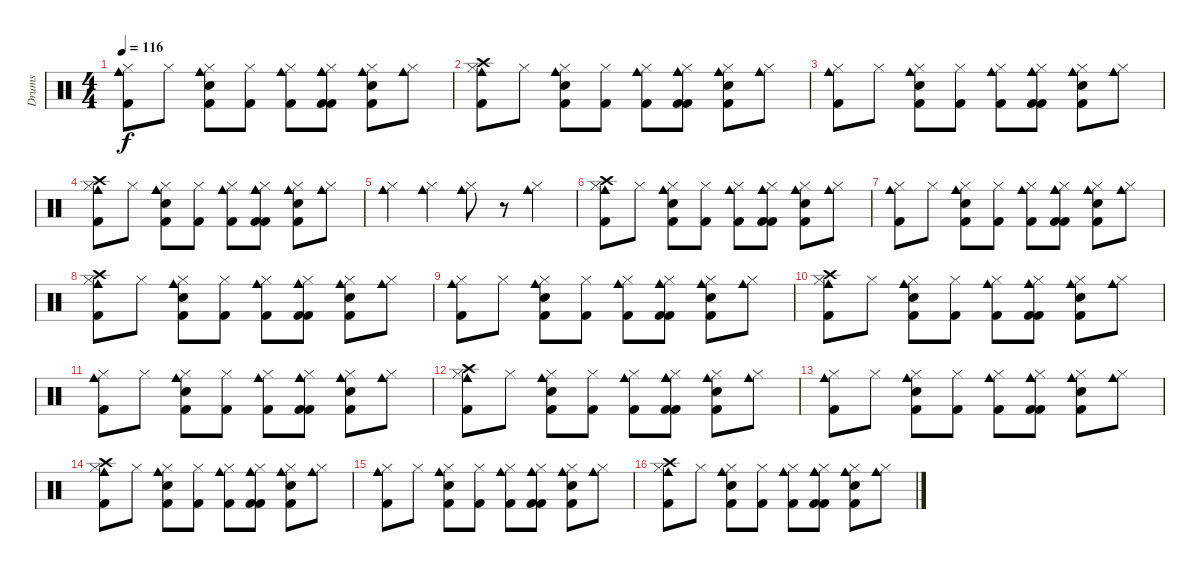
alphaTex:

\track ("Drums" "Drums") {instrument percussion}
\staff {score}
\articulation defaults
\ts (4 4)
\tempo 116
\clef neutral
\ks c
("Kick (hit) 2" "Hi-Hat (closed)" "Cowbell medium (hit)").8{dy f} "Hi-Hat (closed)".8 ("Snare (hit) 2" "Kick (hit) 2" "Hi-Hat (closed)" "Cowbell medium (hit)").8 ("Kick (hit) 2" "Hi-Hat (closed)").8 ("Hi-Hat (closed)" "Kick (hit) 2" "Cowbell medium (hit)").8 ("Kick (hit) 2" "Hi-Hat (closed)" "Cowbell medium (hit)" "Kick (hit) 2" "Cowbell medium (hit)").8 ("Kick (hit) 2" "Snare (hit) 2" "Hi-Hat (closed)" "Cowbell medium (hit)").8 ("Hi-Hat (closed)" "Cowbell medium (hit)").8 |
("Kick (hit) 2" "Hi-Hat (closed)" "Cowbell medium (hit)" "Crash high (hit)").8 "Hi-Hat (closed)".8 ("Snare (hit) 2" "Kick (hit) 2" "Hi-Hat (closed)" "Cowbell medium (hit)").8 ("Kick (hit) 2" "Hi-Hat (closed)").8 ("Hi-Hat (closed)" "Kick (hit) 2" "Cowbell medium (hit)").8 ("Kick (hit) 2" "Hi-Hat (closed)" "Cowbell medium (hit)" "Kick (hit) 2" "Cowbell medium (hit)").8 ("Kick (hit) 2" "Snare (hit) 2" "Hi-Hat (closed)" "Cowbell medium (hit)").8 ("Hi-Hat (closed)" "Cowbell medium (hit)").8 |
("Kick (hit) 2" "Hi-Hat (closed)" "Cowbell medium (hit)").8 "Hi-Hat (closed)".8 ("Snare (hit) 2" "Kick (hit) 2" "Hi-Hat (closed)" "Cowbell medium (hit)").8 ("Kick (hit) 2" "Hi-Hat (closed)").8 ("Hi-Hat (closed)" "Kick (hit) 2" "Cowbell medium (hit)").8 ("Kick (hit) 2" "Hi-Hat (closed)" "Cowbell medium (hit)" "Kick (hit) 2" "Cowbell medium (hit)").8 ("Kick (hit) 2" "Snare (hit) 2" "Hi-Hat (closed)" "Cowbell medium (hit)").8 ("Hi-Hat (closed)" "Cowbell medium (hit)").8 |
("Kick (hit) 2" "Hi-Hat (closed)" "Cowbell medium (hit)" "Crash high (hit)").8 "Hi-Hat (closed)".8 ("Snare (hit) 2" "Kick (hit) 2" "Hi-Hat (closed)" "Cowbell medium (hit)").8 ("Kick (hit) 2" "Hi-Hat (closed)").8 ("Hi-Hat (closed)" "Kick (hit) 2" "Cowbell medium (hit)").8 ("Kick (hit) 2" "Hi-Hat (closed)" "Cowbell medium (hit)" "Kick (hit) 2" "Cowbell medium (hit)").8 ("Kick (hit) 2" "Snare (hit) 2" "Hi-Hat (closed)" "Cowbell medium (hit)").8 ("Hi-Hat (closed)" "Cowbell medium (hit)").8 |
("Hi-Hat (closed)" "Cowbell medium (hit)").4 ("Hi-Hat (closed)" "Cowbell medium (hit)").4 ("Hi-Hat (closed)" "Cowbell medium (hit)").8 r.8 ("Hi-Hat (closed)" "Cowbell medium (hit)").4 |
("Kick (hit) 2" "Hi-Hat (closed)" "Crash high (hit)" "Cowbell medium (hit)").8 "Hi-Hat (closed)".8 ("Snare (hit) 2" "Kick (hit) 2" "Hi-Hat (closed)" "Cowbell medium (hit)").8 ("Kick (hit) 2" "Hi-Hat (closed)").8 ("Hi-Hat (closed)" "Kick (hit) 2" "Cowbell medium (hit)").8 ("Kick (hit) 2" "Hi-Hat (closed)" "Cowbell medium (hit)" "Kick (hit) 2" "Cowbell medium (hit)").8 ("Kick (hit) 2" "Snare (hit) 2" "Hi-Hat (closed)" "Cowbell medium (hit)").8 ("Hi-Hat (closed)" "Cowbell medium (hit)").8 |
("Kick (hit) 2" "Hi-Hat (closed)" "Cowbell medium (hit)").8 "Hi-Hat (closed)".8 ("Snare (hit) 2" "Kick (hit) 2" "Hi-Hat (closed)" "Cowbell medium (hit)").8 ("Kick (hit) 2" "Hi-Hat (closed)").8 ("Hi-Hat (closed)" "Kick (hit) 2" "Cowbell medium (hit)").8 ("Kick (hit) 2" "Hi-Hat (closed)" "Cowbell medium (hit)" "Kick (hit) 2" "Cowbell medium (hit)").8 ("Kick (hit) 2" "Snare (hit) 2" "Hi-Hat (closed)" "Cowbell medium (hit)").8 ("Hi-Hat (closed)" "Cowbell medium (hit)").8 |
("Kick (hit) 2" "Hi-Hat (closed)" "Crash high (hit)" "Cowbell medium (hit)").8 "Hi-Hat (closed)".8 ("Snare (hit) 2" "Kick (hit) 2" "Hi-Hat (closed)" "Cowbell medium (hit)").8 ("Kick (hit) 2" "Hi-Hat (closed)").8 ("Hi-Hat (closed)" "Kick (hit) 2" "Cowbell medium (hit)").8 ("Kick (hit) 2" "Hi-Hat (closed)" "Cowbell medium (hit)" "Kick (hit) 2" "Cowbell medium (hit)").8 ("Kick (hit) 2" "Snare (hit) 2" "Hi-Hat (closed)" "Cowbell medium (hit)").8 ("Hi-Hat (closed)" "Cowbell medium (hit)").8 |
("Kick (hit) 2" "Hi-Hat (closed)" "Cowbell medium (hit)").8 "Hi-Hat (closed)".8 ("Snare (hit) 2" "Kick (hit) 2" "Hi-Hat (closed)" "Cowbell medium (hit)").8 ("Kick (hit) 2" "Hi-Hat (closed)").8 ("Hi-Hat (closed)" "Kick (hit) 2" "Cowbell medium (hit)").8 ("Kick (hit) 2" "Hi-Hat (closed)" "Cowbell medium (hit)" "Kick (hit) 2" "Cowbell medium (hit)").8 ("Kick (hit) 2" "Snare (hit) 2" "Hi-Hat (closed)" "Cowbell medium (hit)").8 ("Hi-Hat (closed)" "Cowbell medium (hit)").8 |
("Kick (hit) 2" "Hi-Hat (closed)" "Crash high (hit)" "Cowbell medium (hit)").8 "Hi-Hat (closed)".8 ("Snare (hit) 2" "Kick (hit) 2" "Hi-Hat (closed)" "Cowbell medium (hit)").8 ("Kick (hit) 2" "Hi-Hat (closed)").8 ("Hi-Hat (closed)" "Kick (hit) 2" "Cowbell medium (hit)").8 ("Kick (hit) 2" "Hi-Hat (closed)" "Cowbell medium (hit)" "Kick (hit) 2" "Cowbell medium (hit)").8 ("Kick (hit) 2" "Snare (hit) 2" "Hi-Hat (closed)" "Cowbell medium (hit)").8 ("Hi-Hat (closed)" "Cowbell medium (hit)").8 |
("Kick (hit) 2" "Hi-Hat (closed)" "Cowbell medium (hit)").8 "Hi-Hat (closed)".8 ("Snare (hit) 2" "Kick (hit) 2" "Hi-Hat (closed)" "Cowbell medium (hit)").8 ("Kick (hit) 2" "Hi-Hat (closed)").8 ("Hi-Hat (closed)" "Kick (hit) 2" "Cowbell medium (hit)").8 ("Kick (hit) 2" "Hi-Hat (closed)" "Cowbell medium (hit)" "Kick (hit) 2" "Cowbell medium (hit)").8 ("Kick (hit) 2" "Snare (hit) 2" "Hi-Hat (closed)" "Cowbell medium (hit)").8 ("Hi-Hat (closed)" "Cowbell medium (hit)").8 |
("Kick (hit) 2" "Hi-Hat (closed)" "Cowbell medium (hit)" "Crash high (hit)").8 "Hi-Hat (closed)".8 ("Snare (hit) 2" "Kick (hit) 2" "Hi-Hat (closed)" "Cowbell medium (hit)").8 ("Kick (hit) 2" "Hi-Hat (closed)").8 ("Hi-Hat (closed)" "Kick (hit) 2" "Cowbell medium (hit)").8 ("Kick (hit) 2" "Hi-Hat (closed)" "Cowbell medium (hit)" "Kick (hit) 2" "Cowbell medium (hit)").8 ("Kick (hit) 2" "Snare (hit) 2" "Hi-Hat (closed)" "Cowbell medium (hit)").8 ("Hi-Hat (closed)" "Cowbell medium (hit)").8 |
("Kick (hit) 2" "Hi-Hat (closed)" "Cowbell medium (hit)").8 "Hi-Hat (closed)".8 ("Snare (hit) 2" "Kick (hit) 2" "Hi-Hat (closed)" "Cowbell medium (hit)").8 ("Kick (hit) 2" "Hi-Hat (closed)").8 ("Hi-Hat (closed)" "Kick (hit) 2" "Cowbell medium (hit)").8 ("Kick (hit) 2" "Hi-Hat (closed)" "Cowbell medium (hit)" "Kick (hit) 2" "Cowbell medium (hit)").8 ("Kick (hit) 2" "Snare (hit) 2" "Hi-Hat (closed)" "Cowbell medium (hit)").8 ("Hi-Hat (closed)" "Cowbell medium (hit)").8 |
("Kick (hit) 2" "Hi-Hat (closed)" "Crash high (hit)" "Cowbell medium (hit)").8 "Hi-Hat (closed)".8 ("Snare (hit) 2" "Kick (hit) 2" "Hi-Hat (closed)" "Cowbell medium (hit)").8 ("Kick (hit) 2" "Hi-Hat (closed)").8 ("Hi-Hat (closed)" "Kick (hit) 2" "Cowbell medium (hit)").8 ("Kick (hit) 2" "Hi-Hat (closed)" "Cowbell medium (hit)" "Kick (hit) 2" "Cowbell medium (hit)").8 ("Kick (hit) 2" "Snare (hit) 2" "Hi-Hat (closed)" "Cowbell medium (hit)").8 ("Hi-Hat (closed)" "Cowbell medium (hit)").8 |
("Kick (hit) 2" "Hi-Hat (closed)" "Cowbell medium (hit)").8 "Hi-Hat (closed)".8 ("Snare (hit) 2" "Kick (hit) 2" "Hi-Hat (closed)" "Cowbell medium (hit)").8 ("Kick (hit) 2" "Hi-Hat (closed)").8 ("Hi-Hat (closed)" "Kick (hit) 2" "Cowbell medium (hit)").8 ("Kick (hit) 2" "Hi-Hat (closed)" "Cowbell medium (hit)" "Kick (hit) 2" "Cowbell medium (hit)").8 ("Kick (hit) 2" "Snare (hit) 2" "Hi-Hat (closed)" "Cowbell medium (hit)").8 ("Hi-Hat (closed)" "Cowbell medium (hit)").8 |
("Kick (hit) 2" "Hi-Hat (closed)" "Cowbell medium (hit)" "Crash high (hit)").8 "Hi-Hat (closed)".8 ("Snare (hit) 2" "Kick (hit) 2" "Hi-Hat (closed)" "Cowbell medium (hit)").8 ("Kick (hit) 2" "Hi-Hat (closed)").8 ("Hi-Hat (closed)" "Kick (hit) 2" "Cowbell medium (hit)").8 ("Kick (hit) 2" "Hi-Hat (closed)" "Cowbell medium (hit)" "Kick (hit) 2" "Cowbell medium (hit)").8 ("Kick (hit) 2" "Snare (hit) 2" "Hi-Hat (closed)" "Cowbell medium (hit)").8 ("Hi-Hat (closed)" "Cowbell medium (hit)").8
